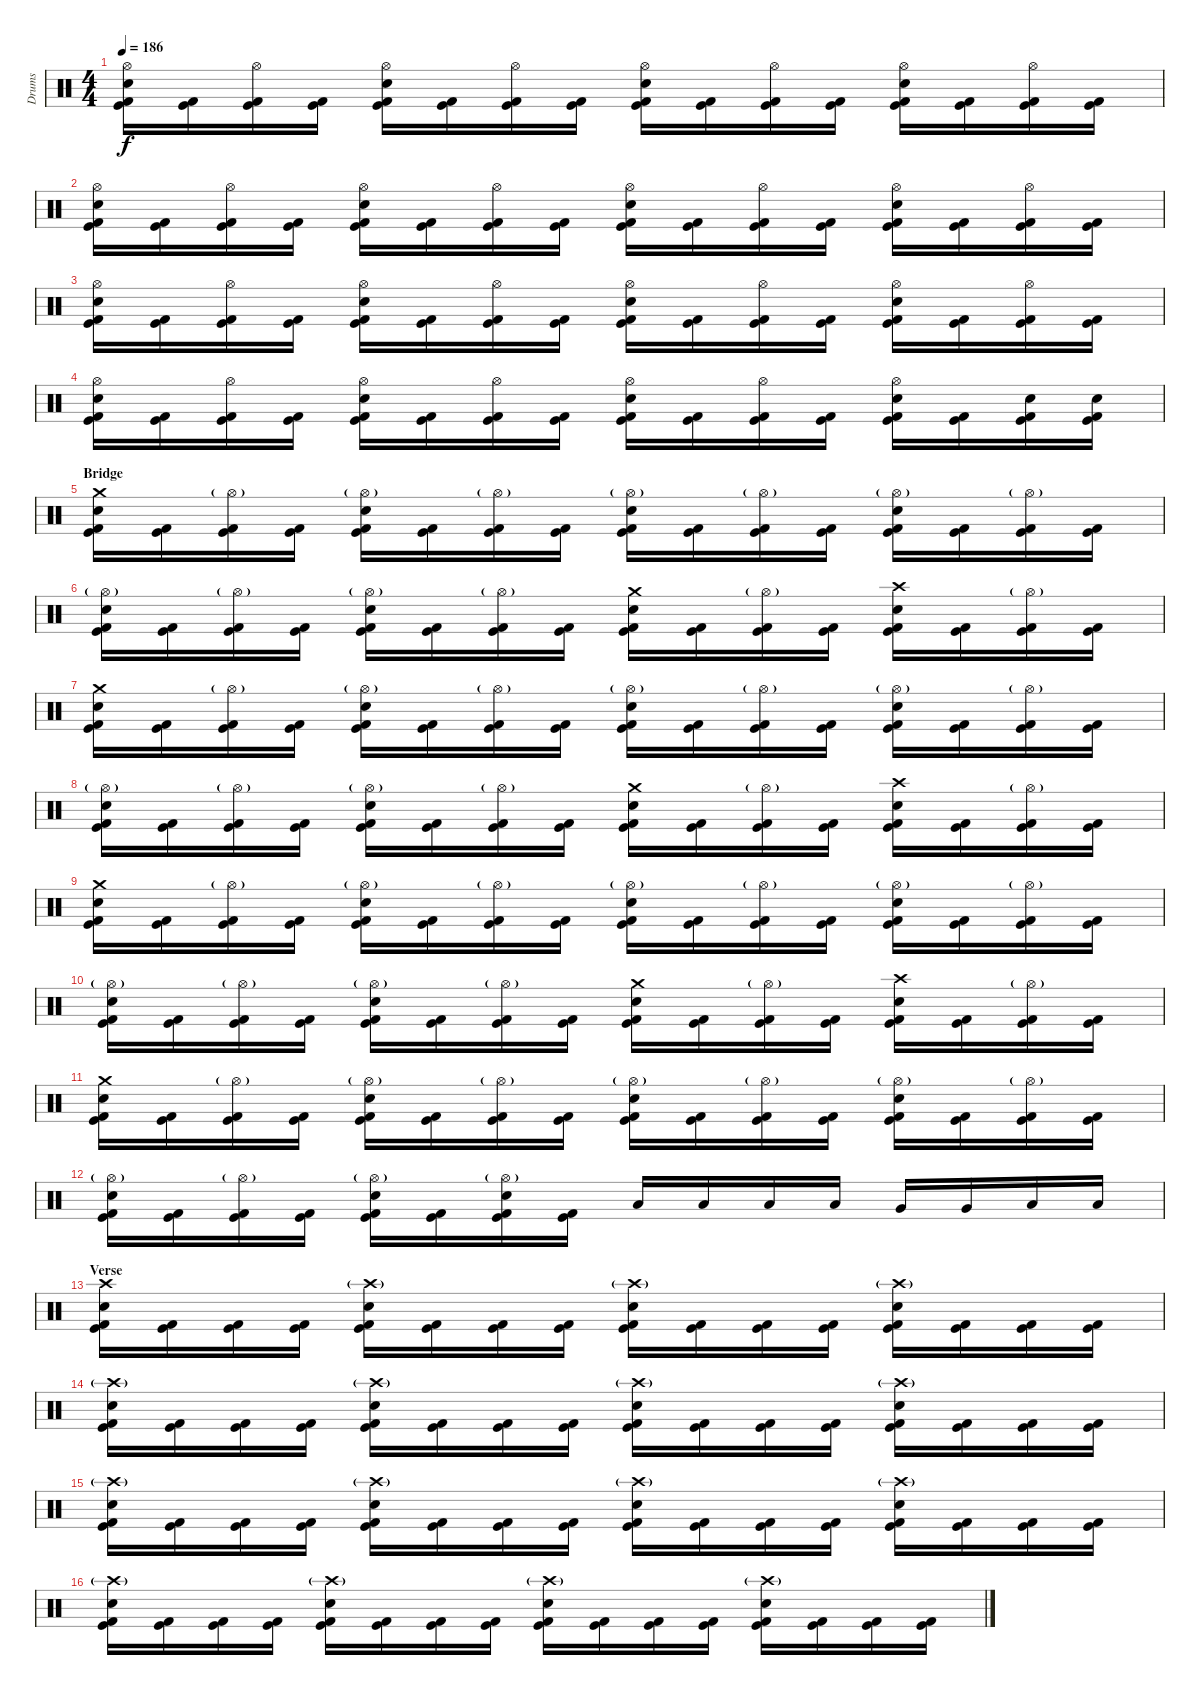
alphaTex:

\track ("Drums" "Drums") {instrument percussion}
\staff {score}
\articulation defaults
\ts (4 4)
\tempo 186
\clef neutral
\ks c
("Hi-Hat (open)" "Electric Snare (hit)" "Kick (hit)" "Kick (hit) 2").16{dy f} ("Kick (hit)" "Kick (hit) 2").16 ("Hi-Hat (open)" "Kick (hit)" "Kick (hit) 2").16 ("Kick (hit)" "Kick (hit) 2").16 ("Hi-Hat (open)" "Electric Snare (hit)" "Kick (hit)" "Kick (hit) 2").16 ("Kick (hit)" "Kick (hit) 2").16 ("Hi-Hat (open)" "Kick (hit)" "Kick (hit) 2").16 ("Kick (hit)" "Kick (hit) 2").16 ("Hi-Hat (open)" "Electric Snare (hit)" "Kick (hit)" "Kick (hit) 2").16 ("Kick (hit)" "Kick (hit) 2").16 ("Hi-Hat (open)" "Kick (hit)" "Kick (hit) 2").16 ("Kick (hit)" "Kick (hit) 2").16 ("Hi-Hat (open)" "Electric Snare (hit)" "Kick (hit)" "Kick (hit) 2").16 ("Kick (hit)" "Kick (hit) 2").16 ("Hi-Hat (open)" "Kick (hit)" "Kick (hit) 2").16 ("Kick (hit)" "Kick (hit) 2").16 |
("Hi-Hat (open)" "Electric Snare (hit)" "Kick (hit)" "Kick (hit) 2").16 ("Kick (hit)" "Kick (hit) 2").16 ("Hi-Hat (open)" "Kick (hit)" "Kick (hit) 2").16 ("Kick (hit)" "Kick (hit) 2").16 ("Hi-Hat (open)" "Electric Snare (hit)" "Kick (hit)" "Kick (hit) 2").16 ("Kick (hit)" "Kick (hit) 2").16 ("Hi-Hat (open)" "Kick (hit)" "Kick (hit) 2").16 ("Kick (hit)" "Kick (hit) 2").16 ("Hi-Hat (open)" "Electric Snare (hit)" "Kick (hit)" "Kick (hit) 2").16 ("Kick (hit)" "Kick (hit) 2").16 ("Hi-Hat (open)" "Kick (hit)" "Kick (hit) 2").16 ("Kick (hit)" "Kick (hit) 2").16 ("Hi-Hat (open)" "Electric Snare (hit)" "Kick (hit)" "Kick (hit) 2").16 ("Kick (hit)" "Kick (hit) 2").16 ("Hi-Hat (open)" "Kick (hit)" "Kick (hit) 2").16 ("Kick (hit)" "Kick (hit) 2").16 |
("Hi-Hat (open)" "Electric Snare (hit)" "Kick (hit)" "Kick (hit) 2").16 ("Kick (hit)" "Kick (hit) 2").16 ("Hi-Hat (open)" "Kick (hit)" "Kick (hit) 2").16 ("Kick (hit)" "Kick (hit) 2").16 ("Hi-Hat (open)" "Electric Snare (hit)" "Kick (hit)" "Kick (hit) 2").16 ("Kick (hit)" "Kick (hit) 2").16 ("Hi-Hat (open)" "Kick (hit)" "Kick (hit) 2").16 ("Kick (hit)" "Kick (hit) 2").16 ("Hi-Hat (open)" "Electric Snare (hit)" "Kick (hit)" "Kick (hit) 2").16 ("Kick (hit)" "Kick (hit) 2").16 ("Hi-Hat (open)" "Kick (hit)" "Kick (hit) 2").16 ("Kick (hit)" "Kick (hit) 2").16 ("Hi-Hat (open)" "Electric Snare (hit)" "Kick (hit)" "Kick (hit) 2").16 ("Kick (hit)" "Kick (hit) 2").16 ("Hi-Hat (open)" "Kick (hit)" "Kick (hit) 2").16 ("Kick (hit)" "Kick (hit) 2").16 |
("Hi-Hat (open)" "Electric Snare (hit)" "Kick (hit)" "Kick (hit) 2").16 ("Kick (hit)" "Kick (hit) 2").16 ("Hi-Hat (open)" "Kick (hit)" "Kick (hit) 2").16 ("Kick (hit)" "Kick (hit) 2").16 ("Hi-Hat (open)" "Electric Snare (hit)" "Kick (hit)" "Kick (hit) 2").16 ("Kick (hit)" "Kick (hit) 2").16 ("Hi-Hat (open)" "Kick (hit)" "Kick (hit) 2").16 ("Kick (hit)" "Kick (hit) 2").16 ("Hi-Hat (open)" "Electric Snare (hit)" "Kick (hit)" "Kick (hit) 2").16 ("Kick (hit)" "Kick (hit) 2").16 ("Hi-Hat (open)" "Kick (hit)" "Kick (hit) 2").16 ("Kick (hit)" "Kick (hit) 2").16 ("Hi-Hat (open)" "Electric Snare (hit)" "Kick (hit)" "Kick (hit) 2").16 ("Kick (hit)" "Kick (hit) 2").16 ("Electric Snare (hit)" "Kick (hit)" "Kick (hit) 2").16 ("Electric Snare (hit)" "Kick (hit)" "Kick (hit) 2").16 |
\section ("" "Bridge")
("Crash medium (hit)" "Electric Snare (hit)" "Kick (hit)" "Kick (hit) 2").16 ("Kick (hit)" "Kick (hit) 2").16 ("Hi-Hat (open)"{g} "Kick (hit)" "Kick (hit) 2").16 ("Kick (hit)" "Kick (hit) 2").16 ("Hi-Hat (open)"{g} "Electric Snare (hit)" "Kick (hit)" "Kick (hit) 2").16 ("Kick (hit)" "Kick (hit) 2").16 ("Hi-Hat (open)"{g} "Kick (hit)" "Kick (hit) 2").16 ("Kick (hit)" "Kick (hit) 2").16 ("Hi-Hat (open)"{g} "Electric Snare (hit)" "Kick (hit)" "Kick (hit) 2").16 ("Kick (hit)" "Kick (hit) 2").16 ("Hi-Hat (open)"{g} "Kick (hit)" "Kick (hit) 2").16 ("Kick (hit)" "Kick (hit) 2").16 ("Hi-Hat (open)"{g} "Electric Snare (hit)" "Kick (hit)" "Kick (hit) 2").16 ("Kick (hit)" "Kick (hit) 2").16 ("Hi-Hat (open)"{g} "Kick (hit)" "Kick (hit) 2").16 ("Kick (hit)" "Kick (hit) 2").16 |
("Hi-Hat (open)"{g} "Electric Snare (hit)" "Kick (hit)" "Kick (hit) 2").16 ("Kick (hit)" "Kick (hit) 2").16 ("Hi-Hat (open)"{g} "Kick (hit)" "Kick (hit) 2").16 ("Kick (hit)" "Kick (hit) 2").16 ("Hi-Hat (open)"{g} "Electric Snare (hit)" "Kick (hit)" "Kick (hit) 2").16 ("Kick (hit)" "Kick (hit) 2").16 ("Hi-Hat (open)"{g} "Kick (hit)" "Kick (hit) 2").16 ("Kick (hit)" "Kick (hit) 2").16 ("Crash medium (hit)" "Electric Snare (hit)" "Kick (hit)" "Kick (hit) 2").16 ("Kick (hit)" "Kick (hit) 2").16 ("Hi-Hat (open)"{g} "Kick (hit)" "Kick (hit) 2").16 ("Kick (hit)" "Kick (hit) 2").16 ("Crash high (hit)" "Electric Snare (hit)" "Kick (hit)" "Kick (hit) 2").16 ("Kick (hit)" "Kick (hit) 2").16 ("Hi-Hat (open)"{g} "Kick (hit)" "Kick (hit) 2").16 ("Kick (hit)" "Kick (hit) 2").16 |
("Crash medium (hit)" "Electric Snare (hit)" "Kick (hit)" "Kick (hit) 2").16 ("Kick (hit)" "Kick (hit) 2").16 ("Hi-Hat (open)"{g} "Kick (hit)" "Kick (hit) 2").16 ("Kick (hit)" "Kick (hit) 2").16 ("Hi-Hat (open)"{g} "Electric Snare (hit)" "Kick (hit)" "Kick (hit) 2").16 ("Kick (hit)" "Kick (hit) 2").16 ("Hi-Hat (open)"{g} "Kick (hit)" "Kick (hit) 2").16 ("Kick (hit)" "Kick (hit) 2").16 ("Hi-Hat (open)"{g} "Electric Snare (hit)" "Kick (hit)" "Kick (hit) 2").16 ("Kick (hit)" "Kick (hit) 2").16 ("Hi-Hat (open)"{g} "Kick (hit)" "Kick (hit) 2").16 ("Kick (hit)" "Kick (hit) 2").16 ("Hi-Hat (open)"{g} "Electric Snare (hit)" "Kick (hit)" "Kick (hit) 2").16 ("Kick (hit)" "Kick (hit) 2").16 ("Hi-Hat (open)"{g} "Kick (hit)" "Kick (hit) 2").16 ("Kick (hit)" "Kick (hit) 2").16 |
("Hi-Hat (open)"{g} "Electric Snare (hit)" "Kick (hit)" "Kick (hit) 2").16 ("Kick (hit)" "Kick (hit) 2").16 ("Hi-Hat (open)"{g} "Kick (hit)" "Kick (hit) 2").16 ("Kick (hit)" "Kick (hit) 2").16 ("Hi-Hat (open)"{g} "Electric Snare (hit)" "Kick (hit)" "Kick (hit) 2").16 ("Kick (hit)" "Kick (hit) 2").16 ("Hi-Hat (open)"{g} "Kick (hit)" "Kick (hit) 2").16 ("Kick (hit)" "Kick (hit) 2").16 ("Crash medium (hit)" "Electric Snare (hit)" "Kick (hit)" "Kick (hit) 2").16 ("Kick (hit)" "Kick (hit) 2").16 ("Hi-Hat (open)"{g} "Kick (hit)" "Kick (hit) 2").16 ("Kick (hit)" "Kick (hit) 2").16 ("Crash high (hit)" "Electric Snare (hit)" "Kick (hit)" "Kick (hit) 2").16 ("Kick (hit)" "Kick (hit) 2").16 ("Hi-Hat (open)"{g} "Kick (hit)" "Kick (hit) 2").16 ("Kick (hit)" "Kick (hit) 2").16 |
("Crash medium (hit)" "Electric Snare (hit)" "Kick (hit)" "Kick (hit) 2").16 ("Kick (hit)" "Kick (hit) 2").16 ("Hi-Hat (open)"{g} "Kick (hit)" "Kick (hit) 2").16 ("Kick (hit)" "Kick (hit) 2").16 ("Hi-Hat (open)"{g} "Electric Snare (hit)" "Kick (hit)" "Kick (hit) 2").16 ("Kick (hit)" "Kick (hit) 2").16 ("Hi-Hat (open)"{g} "Kick (hit)" "Kick (hit) 2").16 ("Kick (hit)" "Kick (hit) 2").16 ("Hi-Hat (open)"{g} "Electric Snare (hit)" "Kick (hit)" "Kick (hit) 2").16 ("Kick (hit)" "Kick (hit) 2").16 ("Hi-Hat (open)"{g} "Kick (hit)" "Kick (hit) 2").16 ("Kick (hit)" "Kick (hit) 2").16 ("Hi-Hat (open)"{g} "Electric Snare (hit)" "Kick (hit)" "Kick (hit) 2").16 ("Kick (hit)" "Kick (hit) 2").16 ("Hi-Hat (open)"{g} "Kick (hit)" "Kick (hit) 2").16 ("Kick (hit)" "Kick (hit) 2").16 |
("Hi-Hat (open)"{g} "Electric Snare (hit)" "Kick (hit)" "Kick (hit) 2").16 ("Kick (hit)" "Kick (hit) 2").16 ("Hi-Hat (open)"{g} "Kick (hit)" "Kick (hit) 2").16 ("Kick (hit)" "Kick (hit) 2").16 ("Hi-Hat (open)"{g} "Electric Snare (hit)" "Kick (hit)" "Kick (hit) 2").16 ("Kick (hit)" "Kick (hit) 2").16 ("Hi-Hat (open)"{g} "Kick (hit)" "Kick (hit) 2").16 ("Kick (hit)" "Kick (hit) 2").16 ("Crash medium (hit)" "Electric Snare (hit)" "Kick (hit)" "Kick (hit) 2").16 ("Kick (hit)" "Kick (hit) 2").16 ("Hi-Hat (open)"{g} "Kick (hit)" "Kick (hit) 2").16 ("Kick (hit)" "Kick (hit) 2").16 ("Crash high (hit)" "Electric Snare (hit)" "Kick (hit)" "Kick (hit) 2").16 ("Kick (hit)" "Kick (hit) 2").16 ("Hi-Hat (open)"{g} "Kick (hit)" "Kick (hit) 2").16 ("Kick (hit)" "Kick (hit) 2").16 |
("Crash medium (hit)" "Electric Snare (hit)" "Kick (hit)" "Kick (hit) 2").16 ("Kick (hit)" "Kick (hit) 2").16 ("Hi-Hat (open)"{g} "Kick (hit)" "Kick (hit) 2").16 ("Kick (hit)" "Kick (hit) 2").16 ("Hi-Hat (open)"{g} "Electric Snare (hit)" "Kick (hit)" "Kick (hit) 2").16 ("Kick (hit)" "Kick (hit) 2").16 ("Hi-Hat (open)"{g} "Kick (hit)" "Kick (hit) 2").16 ("Kick (hit)" "Kick (hit) 2").16 ("Hi-Hat (open)"{g} "Electric Snare (hit)" "Kick (hit)" "Kick (hit) 2").16 ("Kick (hit)" "Kick (hit) 2").16 ("Hi-Hat (open)"{g} "Kick (hit)" "Kick (hit) 2").16 ("Kick (hit)" "Kick (hit) 2").16 ("Hi-Hat (open)"{g} "Electric Snare (hit)" "Kick (hit)" "Kick (hit) 2").16 ("Kick (hit)" "Kick (hit) 2").16 ("Hi-Hat (open)"{g} "Kick (hit)" "Kick (hit) 2").16 ("Kick (hit)" "Kick (hit) 2").16 |
("Hi-Hat (open)"{g} "Electric Snare (hit)" "Kick (hit)" "Kick (hit) 2").16 ("Kick (hit)" "Kick (hit) 2").16 ("Hi-Hat (open)"{g} "Kick (hit)" "Kick (hit) 2").16 ("Kick (hit)" "Kick (hit) 2").16 ("Hi-Hat (open)"{g} "Electric Snare (hit)" "Kick (hit)" "Kick (hit) 2").16 ("Kick (hit)" "Kick (hit) 2").16 ("Hi-Hat (open)"{g} "Electric Snare (hit)" "Kick (hit)" "Kick (hit) 2").16 ("Kick (hit)" "Kick (hit) 2").16 "Low Tom (hit)".16 "Low Tom (hit)".16 "Low Tom (hit)".16 "Low Tom (hit)".16 "Very Low Tom (hit)".16 "Very Low Tom (hit)".16 "Low Floor Tom (hit)".16 "Low Floor Tom (hit)".16 |
\section ("" "Verse")
("Crash high (hit)" "Electric Snare (hit)" "Kick (hit)" "Kick (hit) 2").16 ("Kick (hit)" "Kick (hit) 2").16 ("Kick (hit)" "Kick (hit) 2").16 ("Kick (hit)" "Kick (hit) 2").16 ("Crash high (hit)"{g} "Electric Snare (hit)" "Kick (hit)" "Kick (hit) 2").16 ("Kick (hit)" "Kick (hit) 2").16 ("Kick (hit)" "Kick (hit) 2").16 ("Kick (hit)" "Kick (hit) 2").16 ("Crash high (hit)"{g} "Electric Snare (hit)" "Kick (hit)" "Kick (hit) 2").16 ("Kick (hit)" "Kick (hit) 2").16 ("Kick (hit)" "Kick (hit) 2").16 ("Kick (hit)" "Kick (hit) 2").16 ("Crash high (hit)"{g} "Electric Snare (hit)" "Kick (hit)" "Kick (hit) 2").16 ("Kick (hit)" "Kick (hit) 2").16 ("Kick (hit)" "Kick (hit) 2").16 ("Kick (hit)" "Kick (hit) 2").16 |
("Crash high (hit)"{g} "Electric Snare (hit)" "Kick (hit)" "Kick (hit) 2").16 ("Kick (hit)" "Kick (hit) 2").16 ("Kick (hit)" "Kick (hit) 2").16 ("Kick (hit)" "Kick (hit) 2").16 ("Crash high (hit)"{g} "Electric Snare (hit)" "Kick (hit)" "Kick (hit) 2").16 ("Kick (hit)" "Kick (hit) 2").16 ("Kick (hit)" "Kick (hit) 2").16 ("Kick (hit)" "Kick (hit) 2").16 ("Crash high (hit)"{g} "Electric Snare (hit)" "Kick (hit)" "Kick (hit) 2").16 ("Kick (hit)" "Kick (hit) 2").16 ("Kick (hit)" "Kick (hit) 2").16 ("Kick (hit)" "Kick (hit) 2").16 ("Crash high (hit)"{g} "Electric Snare (hit)" "Kick (hit)" "Kick (hit) 2").16 ("Kick (hit)" "Kick (hit) 2").16 ("Kick (hit)" "Kick (hit) 2").16 ("Kick (hit)" "Kick (hit) 2").16 |
("Crash high (hit)"{g} "Electric Snare (hit)" "Kick (hit)" "Kick (hit) 2").16 ("Kick (hit)" "Kick (hit) 2").16 ("Kick (hit)" "Kick (hit) 2").16 ("Kick (hit)" "Kick (hit) 2").16 ("Crash high (hit)"{g} "Electric Snare (hit)" "Kick (hit)" "Kick (hit) 2").16 ("Kick (hit)" "Kick (hit) 2").16 ("Kick (hit)" "Kick (hit) 2").16 ("Kick (hit)" "Kick (hit) 2").16 ("Crash high (hit)"{g} "Electric Snare (hit)" "Kick (hit)" "Kick (hit) 2").16 ("Kick (hit)" "Kick (hit) 2").16 ("Kick (hit)" "Kick (hit) 2").16 ("Kick (hit)" "Kick (hit) 2").16 ("Crash high (hit)"{g} "Electric Snare (hit)" "Kick (hit)" "Kick (hit) 2").16 ("Kick (hit)" "Kick (hit) 2").16 ("Kick (hit)" "Kick (hit) 2").16 ("Kick (hit)" "Kick (hit) 2").16 |
("Crash high (hit)"{g} "Electric Snare (hit)" "Kick (hit)" "Kick (hit) 2").16 ("Kick (hit)" "Kick (hit) 2").16 ("Kick (hit)" "Kick (hit) 2").16 ("Kick (hit)" "Kick (hit) 2").16 ("Crash high (hit)"{g} "Electric Snare (hit)" "Kick (hit)" "Kick (hit) 2").16 ("Kick (hit)" "Kick (hit) 2").16 ("Kick (hit)" "Kick (hit) 2").16 ("Kick (hit)" "Kick (hit) 2").16 ("Crash high (hit)"{g} "Electric Snare (hit)" "Kick (hit)" "Kick (hit) 2").16 ("Kick (hit)" "Kick (hit) 2").16 ("Kick (hit)" "Kick (hit) 2").16 ("Kick (hit)" "Kick (hit) 2").16 ("Crash high (hit)"{g} "Electric Snare (hit)" "Kick (hit)" "Kick (hit) 2").16 ("Kick (hit)" "Kick (hit) 2").16 ("Kick (hit)" "Kick (hit) 2").16 ("Kick (hit)" "Kick (hit) 2").16
